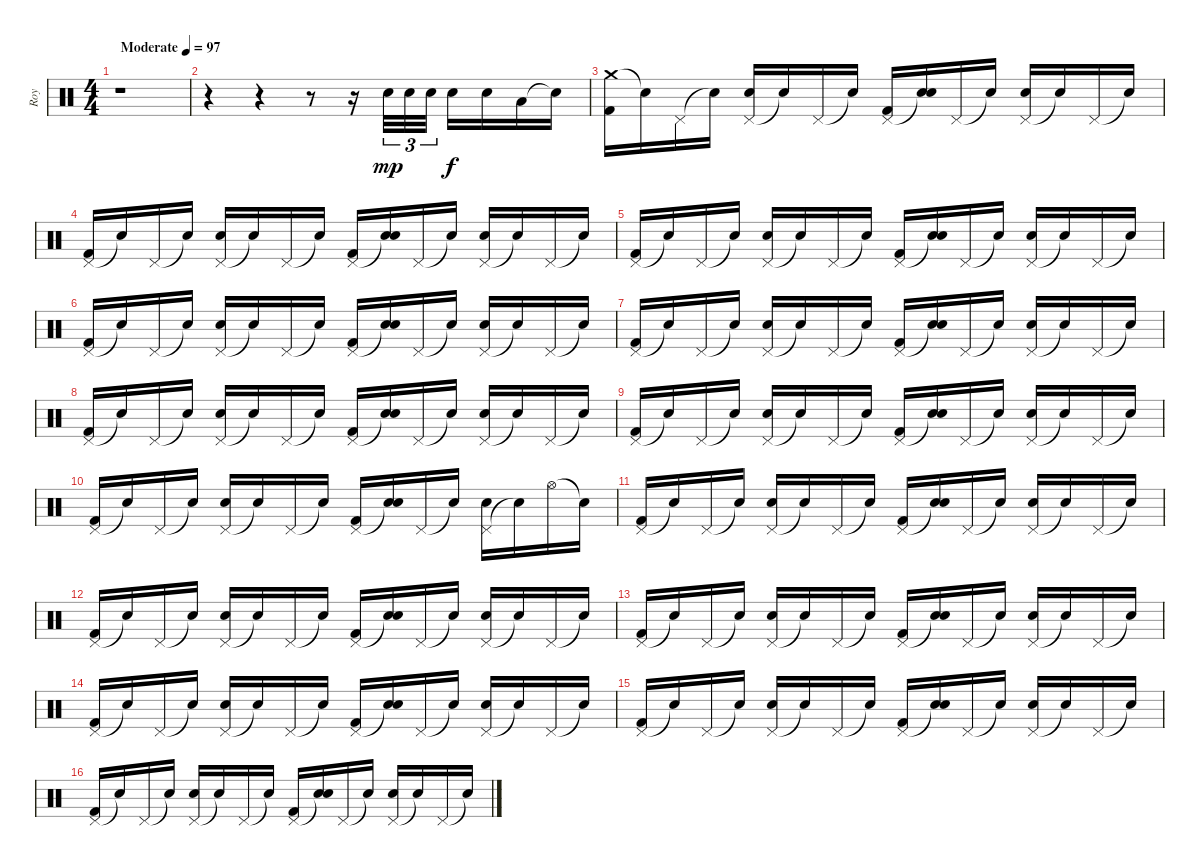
\track ("Roy" "Roy") {instrument percussion}
\staff {score}
\articulation defaults
\ts (4 4)
\tempo (97 "Moderate")
\clef neutral
\ks c
r.1{dy mp} |
r.4 r.4 r.8 r.16 "Electric Snare (hit)".32{tu (3 2)} "Electric Snare (hit)".32{tu (3 2)} "Electric Snare (hit)".32{tu (3 2)} "Electric Snare (hit)".16{dy f} "Electric Snare (hit)".16 "Low Tom (hit)".16 "Snare (hit)"{t}.16 |
("Crash medium (hit)" "Kick (hit) 2").16 "Snare (hit)"{t}.16 "Pedal Hi-Hat (hit)".16 "Snare (hit)"{t}.16 ("Pedal Hi-Hat (hit)" "Electric Snare (hit)").16 "Snare (hit)"{t}.16 "Pedal Hi-Hat (hit)".16 "Snare (hit)"{t}.16 ("Pedal Hi-Hat (hit)" "Kick (hit) 2").16 ("Snare (hit)"{t} "Electric Snare (hit)").16 "Pedal Hi-Hat (hit)".16 "Snare (hit)"{t}.16 ("Pedal Hi-Hat (hit)" "Electric Snare (hit)").16 "Snare (hit)"{t}.16 "Pedal Hi-Hat (hit)".16 "Snare (hit)"{t}.16 |
("Pedal Hi-Hat (hit)" "Kick (hit) 2").16 "Snare (hit)"{t}.16 "Pedal Hi-Hat (hit)".16 "Snare (hit)"{t}.16 ("Pedal Hi-Hat (hit)" "Electric Snare (hit)").16 "Snare (hit)"{t}.16 "Pedal Hi-Hat (hit)".16 "Snare (hit)"{t}.16 ("Pedal Hi-Hat (hit)" "Kick (hit) 2").16 ("Snare (hit)"{t} "Electric Snare (hit)").16 "Pedal Hi-Hat (hit)".16 "Snare (hit)"{t}.16 ("Pedal Hi-Hat (hit)" "Electric Snare (hit)").16 "Snare (hit)"{t}.16 "Pedal Hi-Hat (hit)".16 "Snare (hit)"{t}.16 |
("Pedal Hi-Hat (hit)" "Kick (hit) 2").16 "Snare (hit)"{t}.16 "Pedal Hi-Hat (hit)".16 "Snare (hit)"{t}.16 ("Pedal Hi-Hat (hit)" "Electric Snare (hit)").16 "Snare (hit)"{t}.16 "Pedal Hi-Hat (hit)".16 "Snare (hit)"{t}.16 ("Pedal Hi-Hat (hit)" "Kick (hit) 2").16 ("Snare (hit)"{t} "Electric Snare (hit)").16 "Pedal Hi-Hat (hit)".16 "Snare (hit)"{t}.16 ("Pedal Hi-Hat (hit)" "Electric Snare (hit)").16 "Snare (hit)"{t}.16 "Pedal Hi-Hat (hit)".16 "Snare (hit)"{t}.16 |
("Pedal Hi-Hat (hit)" "Kick (hit) 2").16 "Snare (hit)"{t}.16 "Pedal Hi-Hat (hit)".16 "Snare (hit)"{t}.16 ("Pedal Hi-Hat (hit)" "Electric Snare (hit)").16 "Snare (hit)"{t}.16 "Pedal Hi-Hat (hit)".16 "Snare (hit)"{t}.16 ("Pedal Hi-Hat (hit)" "Kick (hit) 2").16 ("Snare (hit)"{t} "Electric Snare (hit)").16 "Pedal Hi-Hat (hit)".16 "Snare (hit)"{t}.16 ("Pedal Hi-Hat (hit)" "Electric Snare (hit)").16 "Snare (hit)"{t}.16 "Pedal Hi-Hat (hit)".16 "Snare (hit)"{t}.16 |
("Pedal Hi-Hat (hit)" "Kick (hit) 2").16 "Snare (hit)"{t}.16 "Pedal Hi-Hat (hit)".16 "Snare (hit)"{t}.16 ("Pedal Hi-Hat (hit)" "Electric Snare (hit)").16 "Snare (hit)"{t}.16 "Pedal Hi-Hat (hit)".16 "Snare (hit)"{t}.16 ("Pedal Hi-Hat (hit)" "Kick (hit) 2").16 ("Snare (hit)"{t} "Electric Snare (hit)").16 "Pedal Hi-Hat (hit)".16 "Snare (hit)"{t}.16 ("Pedal Hi-Hat (hit)" "Electric Snare (hit)").16 "Snare (hit)"{t}.16 "Pedal Hi-Hat (hit)".16 "Snare (hit)"{t}.16 |
("Pedal Hi-Hat (hit)" "Kick (hit) 2").16 "Snare (hit)"{t}.16 "Pedal Hi-Hat (hit)".16 "Snare (hit)"{t}.16 ("Pedal Hi-Hat (hit)" "Electric Snare (hit)").16 "Snare (hit)"{t}.16 "Pedal Hi-Hat (hit)".16 "Snare (hit)"{t}.16 ("Pedal Hi-Hat (hit)" "Kick (hit) 2").16 ("Snare (hit)"{t} "Electric Snare (hit)").16 "Pedal Hi-Hat (hit)".16 "Snare (hit)"{t}.16 ("Pedal Hi-Hat (hit)" "Electric Snare (hit)").16 "Snare (hit)"{t}.16 "Pedal Hi-Hat (hit)".16 "Snare (hit)"{t}.16 |
("Pedal Hi-Hat (hit)" "Kick (hit) 2").16 "Snare (hit)"{t}.16 "Pedal Hi-Hat (hit)".16 "Snare (hit)"{t}.16 ("Pedal Hi-Hat (hit)" "Electric Snare (hit)").16 "Snare (hit)"{t}.16 "Pedal Hi-Hat (hit)".16 "Snare (hit)"{t}.16 ("Pedal Hi-Hat (hit)" "Kick (hit) 2").16 ("Snare (hit)"{t} "Electric Snare (hit)").16 "Pedal Hi-Hat (hit)".16 "Snare (hit)"{t}.16 ("Pedal Hi-Hat (hit)" "Electric Snare (hit)").16 "Snare (hit)"{t}.16 "Pedal Hi-Hat (hit)".16 "Snare (hit)"{t}.16 |
("Pedal Hi-Hat (hit)" "Kick (hit) 2").16 "Snare (hit)"{t}.16 "Pedal Hi-Hat (hit)".16 "Snare (hit)"{t}.16 ("Pedal Hi-Hat (hit)" "Electric Snare (hit)").16 "Snare (hit)"{t}.16 "Pedal Hi-Hat (hit)".16 "Snare (hit)"{t}.16 ("Pedal Hi-Hat (hit)" "Kick (hit) 2").16 ("Snare (hit)"{t} "Electric Snare (hit)").16 "Pedal Hi-Hat (hit)".16 "Snare (hit)"{t}.16 ("Pedal Hi-Hat (hit)" "Electric Snare (hit)").16 "Snare (hit)"{t}.16 "Hi-Hat (open)".16 "Snare (hit)"{t}.16 |
("Pedal Hi-Hat (hit)" "Kick (hit) 2").16 "Snare (hit)"{t}.16 "Pedal Hi-Hat (hit)".16 "Snare (hit)"{t}.16 ("Pedal Hi-Hat (hit)" "Electric Snare (hit)").16 "Snare (hit)"{t}.16 "Pedal Hi-Hat (hit)".16 "Snare (hit)"{t}.16 ("Pedal Hi-Hat (hit)" "Kick (hit) 2").16 ("Snare (hit)"{t} "Electric Snare (hit)").16 "Pedal Hi-Hat (hit)".16 "Snare (hit)"{t}.16 ("Pedal Hi-Hat (hit)" "Electric Snare (hit)").16 "Snare (hit)"{t}.16 "Pedal Hi-Hat (hit)".16 "Snare (hit)"{t}.16 |
("Pedal Hi-Hat (hit)" "Kick (hit) 2").16 "Snare (hit)"{t}.16 "Pedal Hi-Hat (hit)".16 "Snare (hit)"{t}.16 ("Pedal Hi-Hat (hit)" "Electric Snare (hit)").16 "Snare (hit)"{t}.16 "Pedal Hi-Hat (hit)".16 "Snare (hit)"{t}.16 ("Pedal Hi-Hat (hit)" "Kick (hit) 2").16 ("Snare (hit)"{t} "Electric Snare (hit)").16 "Pedal Hi-Hat (hit)".16 "Snare (hit)"{t}.16 ("Pedal Hi-Hat (hit)" "Electric Snare (hit)").16 "Snare (hit)"{t}.16 "Pedal Hi-Hat (hit)".16 "Snare (hit)"{t}.16 |
("Pedal Hi-Hat (hit)" "Kick (hit) 2").16 "Snare (hit)"{t}.16 "Pedal Hi-Hat (hit)".16 "Snare (hit)"{t}.16 ("Pedal Hi-Hat (hit)" "Electric Snare (hit)").16 "Snare (hit)"{t}.16 "Pedal Hi-Hat (hit)".16 "Snare (hit)"{t}.16 ("Pedal Hi-Hat (hit)" "Kick (hit) 2").16 ("Snare (hit)"{t} "Electric Snare (hit)").16 "Pedal Hi-Hat (hit)".16 "Snare (hit)"{t}.16 ("Pedal Hi-Hat (hit)" "Electric Snare (hit)").16 "Snare (hit)"{t}.16 "Pedal Hi-Hat (hit)".16 "Snare (hit)"{t}.16 |
("Pedal Hi-Hat (hit)" "Kick (hit) 2").16 "Snare (hit)"{t}.16 "Pedal Hi-Hat (hit)".16 "Snare (hit)"{t}.16 ("Pedal Hi-Hat (hit)" "Electric Snare (hit)").16 "Snare (hit)"{t}.16 "Pedal Hi-Hat (hit)".16 "Snare (hit)"{t}.16 ("Pedal Hi-Hat (hit)" "Kick (hit) 2").16 ("Snare (hit)"{t} "Electric Snare (hit)").16 "Pedal Hi-Hat (hit)".16 "Snare (hit)"{t}.16 ("Pedal Hi-Hat (hit)" "Electric Snare (hit)").16 "Snare (hit)"{t}.16 "Pedal Hi-Hat (hit)".16 "Snare (hit)"{t}.16 |
("Pedal Hi-Hat (hit)" "Kick (hit) 2").16 "Snare (hit)"{t}.16 "Pedal Hi-Hat (hit)".16 "Snare (hit)"{t}.16 ("Pedal Hi-Hat (hit)" "Electric Snare (hit)").16 "Snare (hit)"{t}.16 "Pedal Hi-Hat (hit)".16 "Snare (hit)"{t}.16 ("Pedal Hi-Hat (hit)" "Kick (hit) 2").16 ("Snare (hit)"{t} "Electric Snare (hit)").16 "Pedal Hi-Hat (hit)".16 "Snare (hit)"{t}.16 ("Pedal Hi-Hat (hit)" "Electric Snare (hit)").16 "Snare (hit)"{t}.16 "Pedal Hi-Hat (hit)".16 "Snare (hit)"{t}.16 |
("Pedal Hi-Hat (hit)" "Kick (hit) 2").16 "Snare (hit)"{t}.16 "Pedal Hi-Hat (hit)".16 "Snare (hit)"{t}.16 ("Pedal Hi-Hat (hit)" "Electric Snare (hit)").16 "Snare (hit)"{t}.16 "Pedal Hi-Hat (hit)".16 "Snare (hit)"{t}.16 ("Pedal Hi-Hat (hit)" "Kick (hit) 2").16 ("Snare (hit)"{t} "Electric Snare (hit)").16 "Pedal Hi-Hat (hit)".16 "Snare (hit)"{t}.16 ("Pedal Hi-Hat (hit)" "Electric Snare (hit)").16 "Snare (hit)"{t}.16 "Pedal Hi-Hat (hit)".16 "Snare (hit)"{t}.16
